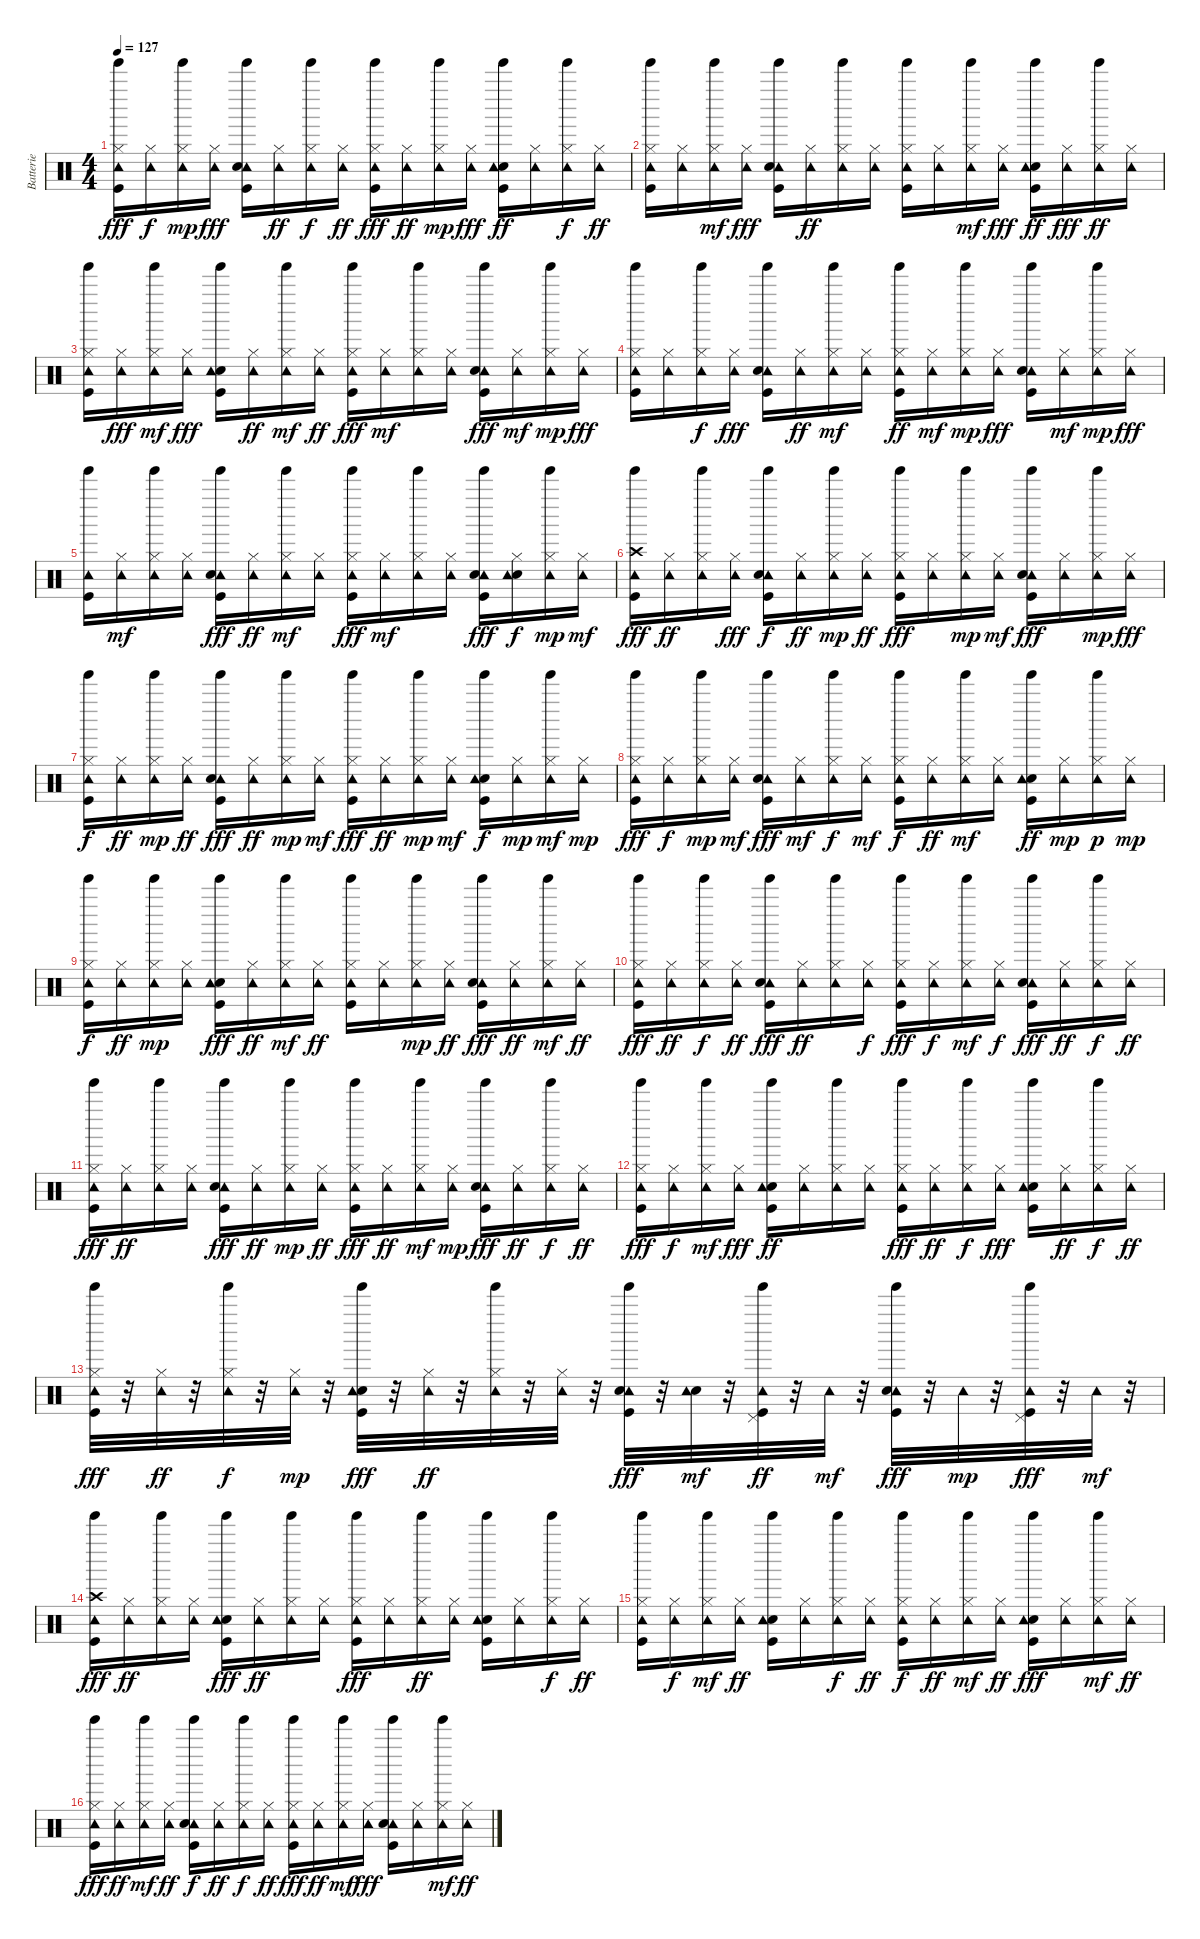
\track ("Batterie" "Batterie") {instrument percussion}
\staff {score}
\articulation defaults
\ts (4 4)
\tempo 127
\clef neutral
\ks c
("Tinkle Bell (hit)" "Tambourine (hit)" "Hi-Hat (closed)" "Kick (hit)").16{dy fff} ("Tambourine (hit)" "Hi-Hat (closed)").16{dy f} ("Tinkle Bell (hit)" "Hi-Hat (closed)" "Tambourine (hit)").16{dy mp} ("Tambourine (hit)" "Hi-Hat (closed)").16{dy fff} ("Tinkle Bell (hit)" "Tambourine (hit)" "Kick (hit)" "Snare (hit) 2").16 ("Tambourine (hit)" "Hi-Hat (closed)").16{dy ff} ("Tinkle Bell (hit)" "Tambourine (hit)" "Hi-Hat (closed)").16{dy f} ("Tambourine (hit)" "Hi-Hat (closed)").16{dy ff} ("Tinkle Bell (hit)" "Tambourine (hit)" "Hi-Hat (closed)" "Kick (hit)").16{dy fff} ("Tambourine (hit)" "Hi-Hat (closed)").16{dy ff} ("Hi-Hat (closed)" "Tambourine (hit)" "Tinkle Bell (hit)").16{dy mp} ("Tambourine (hit)" "Hi-Hat (closed)").16{dy fff} ("Tinkle Bell (hit)" "Kick (hit)" "Snare (hit) 2" "Tambourine (hit)").16{dy ff} ("Tambourine (hit)" "Hi-Hat (closed)").16 ("Tinkle Bell (hit)" "Tambourine (hit)" "Hi-Hat (closed)").16{dy f} ("Tambourine (hit)" "Hi-Hat (closed)").16{dy ff} |
("Tinkle Bell (hit)" "Kick (hit)" "Hi-Hat (closed)" "Tambourine (hit)").16 ("Tambourine (hit)" "Hi-Hat (closed)").16 ("Hi-Hat (closed)" "Tinkle Bell (hit)" "Tambourine (hit)").16{dy mf} ("Tambourine (hit)" "Hi-Hat (closed)").16{dy fff} ("Tinkle Bell (hit)" "Kick (hit)" "Tambourine (hit)" "Snare (hit) 2").16 ("Tambourine (hit)" "Hi-Hat (closed)").16{dy ff} ("Tinkle Bell (hit)" "Tambourine (hit)" "Hi-Hat (closed)").16 ("Tambourine (hit)" "Hi-Hat (closed)").16 ("Tinkle Bell (hit)" "Kick (hit)" "Hi-Hat (closed)" "Tambourine (hit)").16 ("Tambourine (hit)" "Hi-Hat (closed)").16 ("Tinkle Bell (hit)" "Hi-Hat (closed)" "Tambourine (hit)").16{dy mf} ("Tambourine (hit)" "Hi-Hat (closed)").16{dy fff} ("Tinkle Bell (hit)" "Kick (hit)" "Snare (hit) 2" "Tambourine (hit)").16{dy ff} ("Tambourine (hit)" "Hi-Hat (closed)").16{dy fff} ("Tambourine (hit)" "Tinkle Bell (hit)" "Hi-Hat (closed)").16{dy ff} ("Tambourine (hit)" "Hi-Hat (closed)").16 |
("Tinkle Bell (hit)" "Kick (hit)" "Hi-Hat (closed)" "Tambourine (hit)").16 ("Tambourine (hit)" "Hi-Hat (closed)").16{dy fff} ("Hi-Hat (closed)" "Tambourine (hit)" "Tinkle Bell (hit)").16{dy mf} ("Tambourine (hit)" "Hi-Hat (closed)").16{dy fff} ("Tinkle Bell (hit)" "Snare (hit) 2" "Tambourine (hit)" "Kick (hit)").16 ("Tambourine (hit)" "Hi-Hat (closed)").16{dy ff} ("Tinkle Bell (hit)" "Hi-Hat (closed)" "Tambourine (hit)").16{dy mf} ("Tambourine (hit)" "Hi-Hat (closed)").16{dy ff} ("Tinkle Bell (hit)" "Hi-Hat (closed)" "Tambourine (hit)" "Kick (hit)").16{dy fff} ("Hi-Hat (closed)" "Tambourine (hit)").16{dy mf} ("Tinkle Bell (hit)" "Hi-Hat (closed)" "Tambourine (hit)").16 ("Hi-Hat (closed)" "Tambourine (hit)").16 ("Tinkle Bell (hit)" "Kick (hit)" "Tambourine (hit)" "Snare (hit) 2").16{dy fff} ("Hi-Hat (closed)" "Tambourine (hit)").16{dy mf} ("Hi-Hat (closed)" "Tinkle Bell (hit)" "Tambourine (hit)").16{dy mp} ("Tambourine (hit)" "Hi-Hat (closed)").16{dy fff} |
("Hi-Hat (closed)" "Tambourine (hit)" "Tinkle Bell (hit)" "Kick (hit)").16 ("Tambourine (hit)" "Hi-Hat (closed)").16 ("Tambourine (hit)" "Tinkle Bell (hit)" "Hi-Hat (closed)").16{dy f} ("Tambourine (hit)" "Hi-Hat (closed)").16{dy fff} ("Tinkle Bell (hit)" "Kick (hit)" "Tambourine (hit)" "Snare (hit) 2").16 ("Tambourine (hit)" "Hi-Hat (closed)").16{dy ff} ("Hi-Hat (closed)" "Tambourine (hit)" "Tinkle Bell (hit)").16{dy mf} ("Hi-Hat (closed)" "Tambourine (hit)").16 ("Tinkle Bell (hit)" "Kick (hit)" "Hi-Hat (closed)" "Tambourine (hit)").16{dy ff} ("Hi-Hat (closed)" "Tambourine (hit)").16{dy mf} ("Tinkle Bell (hit)" "Hi-Hat (closed)" "Tambourine (hit)").16{dy mp} ("Tambourine (hit)" "Hi-Hat (closed)").16{dy fff} ("Tinkle Bell (hit)" "Tambourine (hit)" "Kick (hit)" "Snare (hit) 2").16 ("Hi-Hat (closed)" "Tambourine (hit)").16{dy mf} ("Tambourine (hit)" "Hi-Hat (closed)" "Tinkle Bell (hit)").16{dy mp} ("Tambourine (hit)" "Hi-Hat (closed)").16{dy fff} |
("Tambourine (hit)" "Tinkle Bell (hit)" "Kick (hit)").16 ("Hi-Hat (closed)" "Tambourine (hit)").16{dy mf} ("Tinkle Bell (hit)" "Hi-Hat (closed)" "Tambourine (hit)").16 ("Hi-Hat (closed)" "Tambourine (hit)").16 ("Tambourine (hit)" "Tinkle Bell (hit)" "Kick (hit)" "Snare (hit) 2").16{dy fff} ("Tambourine (hit)" "Hi-Hat (closed)").16{dy ff} ("Hi-Hat (closed)" "Tinkle Bell (hit)" "Tambourine (hit)").16{dy mf} ("Hi-Hat (closed)" "Tambourine (hit)").16 ("Tinkle Bell (hit)" "Kick (hit)" "Tambourine (hit)" "Hi-Hat (closed)").16{dy fff} ("Hi-Hat (closed)" "Tambourine (hit)").16{dy mf} ("Hi-Hat (closed)" "Tambourine (hit)" "Tinkle Bell (hit)").16 ("Hi-Hat (closed)" "Tambourine (hit)").16 ("Tambourine (hit)" "Tinkle Bell (hit)" "Kick (hit)" "Snare (hit) 2").16{dy fff} ("Snare (hit) 2" "Hi-Hat (closed)" "Tambourine (hit)").16{dy f} ("Hi-Hat (closed)" "Tambourine (hit)" "Tinkle Bell (hit)").16{dy mp} ("Hi-Hat (closed)" "Tambourine (hit)").16{dy mf} |
("Crash high (hit)" "Tinkle Bell (hit)" "Tambourine (hit)" "Kick (hit)").16{dy fff} ("Tambourine (hit)" "Hi-Hat (closed)").16{dy ff} ("Tinkle Bell (hit)" "Tambourine (hit)" "Hi-Hat (closed)").16 ("Tambourine (hit)" "Hi-Hat (closed)").16{dy fff} ("Tambourine (hit)" "Kick (hit)" "Snare (hit) 2" "Tinkle Bell (hit)").16{dy f} ("Tambourine (hit)" "Hi-Hat (closed)").16{dy ff} ("Hi-Hat (closed)" "Tambourine (hit)" "Tinkle Bell (hit)").16{dy mp} ("Tambourine (hit)" "Hi-Hat (closed)").16{dy ff} ("Kick (hit)" "Tambourine (hit)" "Tinkle Bell (hit)" "Hi-Hat (closed)").16{dy fff} ("Tambourine (hit)" "Hi-Hat (closed)").16 ("Hi-Hat (closed)" "Tambourine (hit)" "Tinkle Bell (hit)").16{dy mp} ("Hi-Hat (closed)" "Tambourine (hit)").16{dy mf} ("Tinkle Bell (hit)" "Tambourine (hit)" "Kick (hit)" "Snare (hit) 2").16{dy fff} ("Tambourine (hit)" "Hi-Hat (closed)").16 ("Hi-Hat (closed)" "Tambourine (hit)" "Tinkle Bell (hit)").16{dy mp} ("Tambourine (hit)" "Hi-Hat (closed)").16{dy fff} |
("Tambourine (hit)" "Kick (hit)" "Hi-Hat (closed)" "Tinkle Bell (hit)").16{dy f} ("Tambourine (hit)" "Hi-Hat (closed)").16{dy ff} ("Hi-Hat (closed)" "Tambourine (hit)" "Tinkle Bell (hit)").16{dy mp} ("Tambourine (hit)" "Hi-Hat (closed)").16{dy ff} ("Tambourine (hit)" "Tinkle Bell (hit)" "Kick (hit)" "Snare (hit) 2").16{dy fff} ("Tambourine (hit)" "Hi-Hat (closed)").16{dy ff} ("Tinkle Bell (hit)" "Hi-Hat (closed)" "Tambourine (hit)").16{dy mp} ("Hi-Hat (closed)" "Tambourine (hit)").16{dy mf} ("Tinkle Bell (hit)" "Tambourine (hit)" "Kick (hit)" "Hi-Hat (closed)").16{dy fff} ("Tambourine (hit)" "Hi-Hat (closed)").16{dy ff} ("Tinkle Bell (hit)" "Hi-Hat (closed)" "Tambourine (hit)").16{dy mp} ("Hi-Hat (closed)" "Tambourine (hit)").16{dy mf} ("Tinkle Bell (hit)" "Snare (hit) 2" "Kick (hit)" "Tambourine (hit)").16{dy f} ("Hi-Hat (closed)" "Tambourine (hit)").16{dy mp} ("Hi-Hat (closed)" "Tinkle Bell (hit)" "Tambourine (hit)").16{dy mf} ("Hi-Hat (closed)" "Tambourine (hit)").16{dy mp} |
("Hi-Hat (closed)" "Tinkle Bell (hit)" "Tambourine (hit)" "Kick (hit)").16{dy fff} ("Tambourine (hit)" "Hi-Hat (closed)").16{dy f} ("Hi-Hat (closed)" "Tinkle Bell (hit)" "Tambourine (hit)").16{dy mp} ("Hi-Hat (closed)" "Tambourine (hit)").16{dy mf} ("Tinkle Bell (hit)" "Kick (hit)" "Tambourine (hit)" "Snare (hit) 2").16{dy fff} ("Hi-Hat (closed)" "Tambourine (hit)").16{dy mf} ("Tinkle Bell (hit)" "Tambourine (hit)" "Hi-Hat (closed)").16{dy f} ("Hi-Hat (closed)" "Tambourine (hit)").16{dy mf} ("Tinkle Bell (hit)" "Kick (hit)" "Hi-Hat (closed)" "Tambourine (hit)").16{dy f} ("Tambourine (hit)" "Hi-Hat (closed)").16{dy ff} ("Tinkle Bell (hit)" "Hi-Hat (closed)" "Tambourine (hit)").16{dy mf} ("Hi-Hat (closed)" "Tambourine (hit)").16 ("Tinkle Bell (hit)" "Kick (hit)" "Snare (hit) 2" "Tambourine (hit)").16{dy ff} ("Hi-Hat (closed)" "Tambourine (hit)").16{dy mp} ("Tinkle Bell (hit)" "Hi-Hat (closed)" "Tambourine (hit)").16{dy p} ("Hi-Hat (closed)" "Tambourine (hit)").16{dy mp} |
("Kick (hit)" "Hi-Hat (closed)" "Tambourine (hit)" "Tinkle Bell (hit)").16{dy f} ("Tambourine (hit)" "Hi-Hat (closed)").16{dy ff} ("Hi-Hat (closed)" "Tambourine (hit)" "Tinkle Bell (hit)").16{dy mp} ("Hi-Hat (closed)" "Tambourine (hit)").16 ("Tinkle Bell (hit)" "Snare (hit) 2" "Tambourine (hit)" "Kick (hit)").16{dy fff} ("Tambourine (hit)" "Hi-Hat (closed)").16{dy ff} ("Tinkle Bell (hit)" "Tambourine (hit)" "Hi-Hat (closed)").16{dy mf} ("Tambourine (hit)" "Hi-Hat (closed)").16{dy ff} ("Tinkle Bell (hit)" "Hi-Hat (closed)" "Kick (hit)" "Tambourine (hit)").16 ("Tambourine (hit)" "Hi-Hat (closed)").16 ("Tinkle Bell (hit)" "Hi-Hat (closed)" "Tambourine (hit)").16{dy mp} ("Tambourine (hit)" "Hi-Hat (closed)").16{dy ff} ("Tinkle Bell (hit)" "Tambourine (hit)" "Kick (hit)" "Snare (hit) 2").16{dy fff} ("Tambourine (hit)" "Hi-Hat (closed)").16{dy ff} ("Tinkle Bell (hit)" "Tambourine (hit)" "Hi-Hat (closed)").16{dy mf} ("Tambourine (hit)" "Hi-Hat (closed)").16{dy ff} |
("Tinkle Bell (hit)" "Hi-Hat (closed)" "Tambourine (hit)" "Kick (hit)").16{dy fff} ("Tambourine (hit)" "Hi-Hat (closed)").16{dy ff} ("Tambourine (hit)" "Tinkle Bell (hit)" "Hi-Hat (closed)").16{dy f} ("Tambourine (hit)" "Hi-Hat (closed)").16{dy ff} ("Tinkle Bell (hit)" "Kick (hit)" "Tambourine (hit)" "Snare (hit) 2").16{dy fff} ("Tambourine (hit)" "Hi-Hat (closed)").16{dy ff} ("Tinkle Bell (hit)" "Tambourine (hit)" "Hi-Hat (closed)").16 ("Tambourine (hit)" "Hi-Hat (closed)").16{dy f} ("Tinkle Bell (hit)" "Hi-Hat (closed)" "Tambourine (hit)" "Kick (hit)").16{dy fff} ("Tambourine (hit)" "Hi-Hat (closed)").16{dy f} ("Tinkle Bell (hit)" "Hi-Hat (closed)" "Tambourine (hit)").16{dy mf} ("Tambourine (hit)" "Hi-Hat (closed)").16{dy f} ("Tinkle Bell (hit)" "Kick (hit)" "Tambourine (hit)" "Snare (hit) 2").16{dy fff} ("Tambourine (hit)" "Hi-Hat (closed)").16{dy ff} ("Tinkle Bell (hit)" "Tambourine (hit)" "Hi-Hat (closed)").16{dy f} ("Tambourine (hit)" "Hi-Hat (closed)").16{dy ff} |
("Tinkle Bell (hit)" "Kick (hit)" "Tambourine (hit)" "Hi-Hat (closed)").16{dy fff} ("Tambourine (hit)" "Hi-Hat (closed)").16{dy ff} ("Tinkle Bell (hit)" "Tambourine (hit)" "Hi-Hat (closed)").16 ("Tambourine (hit)" "Hi-Hat (closed)").16 ("Tinkle Bell (hit)" "Kick (hit)" "Tambourine (hit)" "Snare (hit) 2").16{dy fff} ("Tambourine (hit)" "Hi-Hat (closed)").16{dy ff} ("Tinkle Bell (hit)" "Hi-Hat (closed)" "Tambourine (hit)").16{dy mp} ("Tambourine (hit)" "Hi-Hat (closed)").16{dy ff} ("Hi-Hat (closed)" "Tambourine (hit)" "Tinkle Bell (hit)" "Kick (hit)").16{dy fff} ("Tambourine (hit)" "Hi-Hat (closed)").16{dy ff} ("Hi-Hat (closed)" "Tambourine (hit)" "Tinkle Bell (hit)").16{dy mf} ("Hi-Hat (closed)" "Tambourine (hit)").16{dy mp} ("Tambourine (hit)" "Tinkle Bell (hit)" "Kick (hit)" "Snare (hit) 2").16{dy fff} ("Tambourine (hit)" "Hi-Hat (closed)").16{dy ff} ("Tinkle Bell (hit)" "Tambourine (hit)" "Hi-Hat (closed)").16{dy f} ("Tambourine (hit)" "Hi-Hat (closed)").16{dy ff} |
("Tambourine (hit)" "Tinkle Bell (hit)" "Kick (hit)" "Hi-Hat (closed)").16{dy fff} ("Tambourine (hit)" "Hi-Hat (closed)").16{dy f} ("Tinkle Bell (hit)" "Hi-Hat (closed)" "Tambourine (hit)").16{dy mf} ("Tambourine (hit)" "Hi-Hat (closed)").16{dy fff} ("Tinkle Bell (hit)" "Kick (hit)" "Snare (hit) 2" "Tambourine (hit)").16{dy ff} ("Tambourine (hit)" "Hi-Hat (closed)").16 ("Tinkle Bell (hit)" "Tambourine (hit)" "Hi-Hat (closed)").16 ("Tambourine (hit)" "Hi-Hat (closed)").16 ("Tinkle Bell (hit)" "Tambourine (hit)" "Kick (hit)" "Hi-Hat (closed)").16{dy fff} ("Tambourine (hit)" "Hi-Hat (closed)").16{dy ff} ("Tinkle Bell (hit)" "Tambourine (hit)" "Hi-Hat (closed)").16{dy f} ("Tambourine (hit)" "Hi-Hat (closed)").16{dy fff} ("Snare (hit) 2" "Tinkle Bell (hit)" "Tambourine (hit)" "Kick (hit)").16 ("Tambourine (hit)" "Hi-Hat (closed)").16{dy ff} ("Tambourine (hit)" "Tinkle Bell (hit)" "Hi-Hat (closed)").16{dy f} ("Tambourine (hit)" "Hi-Hat (closed)").16{dy ff} |
("Tinkle Bell (hit)" "Hi-Hat (closed)" "Tambourine (hit)" "Kick (hit)").32{dy fff} r.32 ("Tambourine (hit)" "Hi-Hat (closed)").32{dy ff} r.32 ("Tambourine (hit)" "Tinkle Bell (hit)" "Hi-Hat (closed)").32{dy f} r.32 ("Hi-Hat (closed)" "Tambourine (hit)").32{dy mp} r.32 ("Snare (hit) 2" "Tambourine (hit)" "Tinkle Bell (hit)" "Kick (hit)").32{dy fff} r.32 ("Tambourine (hit)" "Hi-Hat (closed)").32{dy ff} r.32 ("Tinkle Bell (hit)" "Tambourine (hit)" "Hi-Hat (closed)").32 r.32 ("Tambourine (hit)" "Hi-Hat (closed)").32 r.32 ("Tinkle Bell (hit)" "Kick (hit)" "Tambourine (hit)" "Snare (hit) 2").32{dy fff} r.32 ("Snare (hit) 2" "Tambourine (hit)").32{dy mf} r.32 ("Tambourine (hit)" "Tinkle Bell (hit)" "Pedal Hi-Hat (hit)" "Kick (hit)").32{dy ff} r.32 "Tambourine (hit)".32{dy mf} r.32 ("Tinkle Bell (hit)" "Tambourine (hit)" "Snare (hit) 2" "Kick (hit)").32{dy fff} r.32 "Tambourine (hit)".32{dy mp} r.32 ("Tinkle Bell (hit)" "Tambourine (hit)" "Kick (hit)" "Pedal Hi-Hat (hit)").32{dy fff} r.32 "Tambourine (hit)".32{dy mf} r.32 |
("Crash high (hit)" "Tinkle Bell (hit)" "Tambourine (hit)" "Kick (hit)").16{dy fff} ("Tambourine (hit)" "Hi-Hat (closed)").16{dy ff} ("Tambourine (hit)" "Tinkle Bell (hit)" "Hi-Hat (closed)").16 ("Tambourine (hit)" "Hi-Hat (closed)").16 ("Tinkle Bell (hit)" "Snare (hit) 2" "Tambourine (hit)" "Kick (hit)").16{dy fff} ("Tambourine (hit)" "Hi-Hat (closed)").16{dy ff} ("Tambourine (hit)" "Tinkle Bell (hit)" "Hi-Hat (closed)").16 ("Tambourine (hit)" "Hi-Hat (closed)").16 ("Tambourine (hit)" "Tinkle Bell (hit)" "Kick (hit)" "Hi-Hat (closed)").16{dy fff} ("Tambourine (hit)" "Hi-Hat (closed)").16 ("Tinkle Bell (hit)" "Tambourine (hit)" "Hi-Hat (closed)").16{dy ff} ("Tambourine (hit)" "Hi-Hat (closed)").16 ("Tinkle Bell (hit)" "Kick (hit)" "Snare (hit) 2" "Tambourine (hit)").16 ("Tambourine (hit)" "Hi-Hat (closed)").16 ("Tinkle Bell (hit)" "Tambourine (hit)" "Hi-Hat (closed)").16{dy f} ("Tambourine (hit)" "Hi-Hat (closed)").16{dy ff} |
("Tinkle Bell (hit)" "Kick (hit)" "Hi-Hat (closed)" "Tambourine (hit)").16 ("Tambourine (hit)" "Hi-Hat (closed)").16{dy f} ("Hi-Hat (closed)" "Tinkle Bell (hit)" "Tambourine (hit)").16{dy mf} ("Tambourine (hit)" "Hi-Hat (closed)").16{dy ff} ("Tinkle Bell (hit)" "Kick (hit)" "Snare (hit) 2" "Tambourine (hit)").16 ("Tambourine (hit)" "Hi-Hat (closed)").16 ("Tinkle Bell (hit)" "Tambourine (hit)" "Hi-Hat (closed)").16{dy f} ("Tambourine (hit)" "Hi-Hat (closed)").16{dy ff} ("Tinkle Bell (hit)" "Hi-Hat (closed)" "Kick (hit)" "Tambourine (hit)").16{dy f} ("Tambourine (hit)" "Hi-Hat (closed)").16{dy ff} ("Hi-Hat (closed)" "Tinkle Bell (hit)" "Tambourine (hit)").16{dy mf} ("Tambourine (hit)" "Hi-Hat (closed)").16{dy ff} ("Tinkle Bell (hit)" "Snare (hit) 2" "Tambourine (hit)" "Kick (hit)").16{dy fff} ("Tambourine (hit)" "Hi-Hat (closed)").16 ("Tinkle Bell (hit)" "Hi-Hat (closed)" "Tambourine (hit)").16{dy mf} ("Tambourine (hit)" "Hi-Hat (closed)").16{dy ff} |
("Hi-Hat (closed)" "Tambourine (hit)" "Tinkle Bell (hit)" "Kick (hit)").16{dy fff} ("Tambourine (hit)" "Hi-Hat (closed)").16{dy ff} ("Hi-Hat (closed)" "Tambourine (hit)" "Tinkle Bell (hit)").16{dy mf} ("Tambourine (hit)" "Hi-Hat (closed)").16{dy ff} ("Tambourine (hit)" "Kick (hit)" "Snare (hit) 2" "Tinkle Bell (hit)").16{dy f} ("Tambourine (hit)" "Hi-Hat (closed)").16{dy ff} ("Tinkle Bell (hit)" "Tambourine (hit)" "Hi-Hat (closed)").16{dy f} ("Tambourine (hit)" "Hi-Hat (closed)").16{dy ff} ("Tinkle Bell (hit)" "Hi-Hat (closed)" "Tambourine (hit)" "Kick (hit)").16{dy fff} ("Tambourine (hit)" "Hi-Hat (closed)").16{dy ff} ("Hi-Hat (closed)" "Tinkle Bell (hit)" "Tambourine (hit)").16{dy mf} ("Tambourine (hit)" "Hi-Hat (closed)").16{dy fff} ("Tinkle Bell (hit)" "Tambourine (hit)" "Kick (hit)" "Snare (hit) 2").16 ("Tambourine (hit)" "Hi-Hat (closed)").16 ("Tambourine (hit)" "Tinkle Bell (hit)" "Hi-Hat (closed)").16{dy mf} ("Tambourine (hit)" "Hi-Hat (closed)").16{dy ff}
